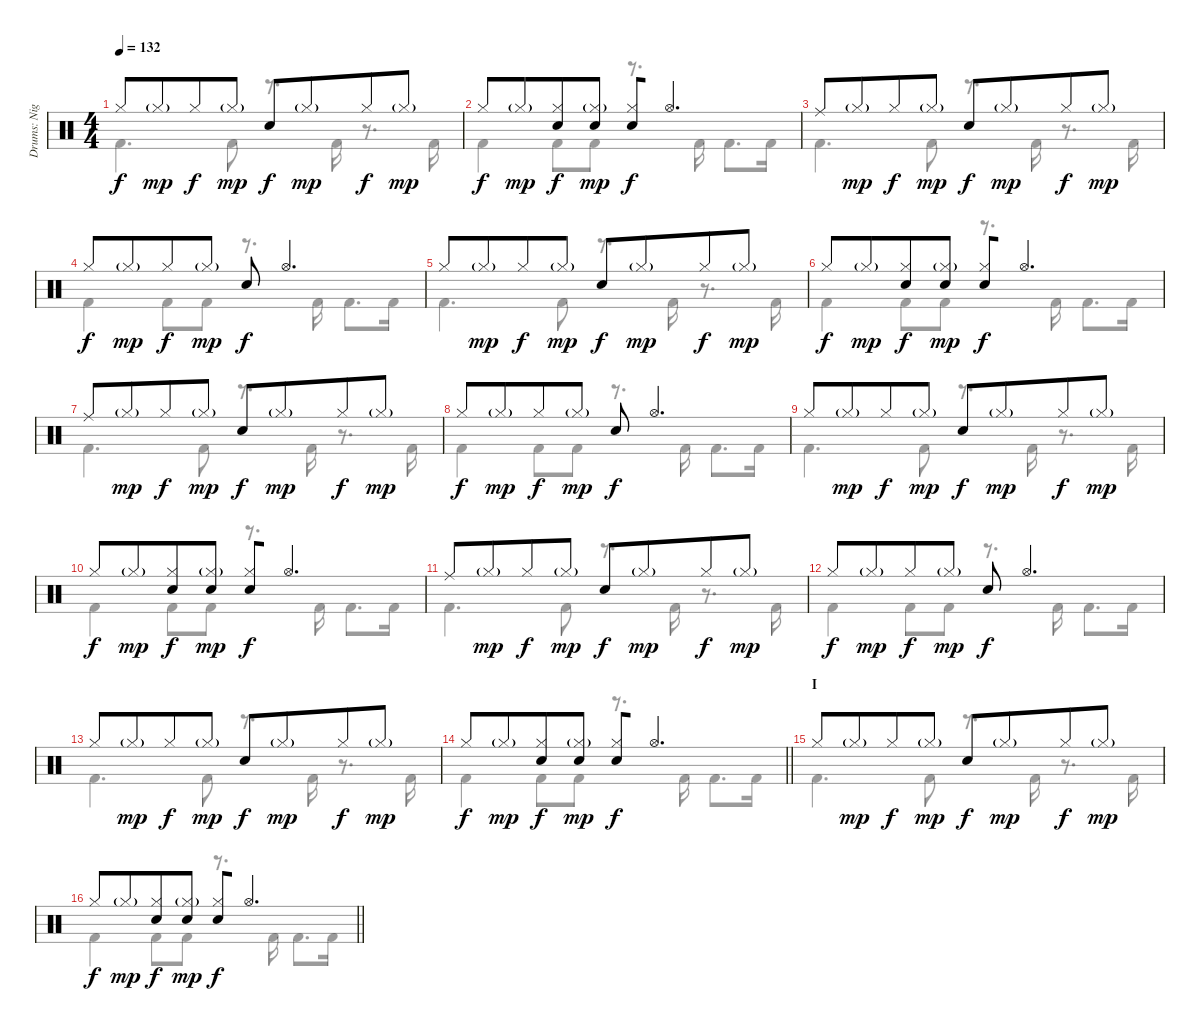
\track ("Drums: Nigel Ollson" "Drums: Nig") {instrument percussion}
\staff {score}
\articulation defaults
\voice
\ts (4 4)
\tempo 132
\clef neutral
\ks c "Hi-Hat (closed)".8{dy f} "Hi-Hat (closed)"{g}.8{dy mp beam merge} "Hi-Hat (closed)".8{dy f} "Hi-Hat (closed)"{g}.8{dy mp} "Electric Snare (hit)".8{dy f} "Hi-Hat (closed)"{g}.8{dy mp beam merge} "Hi-Hat (closed)".8{dy f} "Hi-Hat (closed)"{g}.8{dy mp}
|
"Hi-Hat (closed)".8{dy f} "Hi-Hat (closed)"{g}.8{dy mp beam merge} ("Hi-Hat (closed)" "Electric Snare (hit)").8{dy f} ("Hi-Hat (closed)"{g} "Electric Snare (hit)").8{dy mp} ("Hi-Hat (closed)" "Electric Snare (hit)").8{dy f beam merge} "Hi-Hat (open)".4{d} |
"Ride (middle)".8 "Hi-Hat (closed)"{g}.8{dy mp beam merge} "Hi-Hat (closed)".8{dy f} "Hi-Hat (closed)"{g}.8{dy mp} "Electric Snare (hit)".8{dy f} "Hi-Hat (closed)"{g}.8{dy mp beam merge} "Hi-Hat (closed)".8{dy f} "Hi-Hat (closed)"{g}.8{dy mp} |
"Hi-Hat (closed)".8{dy f} "Hi-Hat (closed)"{g}.8{dy mp beam merge} "Hi-Hat (closed)".8{dy f} "Hi-Hat (closed)"{g}.8{dy mp} "Electric Snare (hit)".8{dy f} "Hi-Hat (open)".4{d} |
"Hi-Hat (closed)".8 "Hi-Hat (closed)"{g}.8{dy mp beam merge} "Hi-Hat (closed)".8{dy f} "Hi-Hat (closed)"{g}.8{dy mp} "Electric Snare (hit)".8{dy f} "Hi-Hat (closed)"{g}.8{dy mp beam merge} "Hi-Hat (closed)".8{dy f} "Hi-Hat (closed)"{g}.8{dy mp} |
"Hi-Hat (closed)".8{dy f} "Hi-Hat (closed)"{g}.8{dy mp beam merge} ("Hi-Hat (closed)" "Electric Snare (hit)").8{dy f} ("Hi-Hat (closed)"{g} "Electric Snare (hit)").8{dy mp} ("Hi-Hat (closed)" "Electric Snare (hit)").8{dy f beam merge} "Hi-Hat (open)".4{d} |
"Ride (middle)".8 "Hi-Hat (closed)"{g}.8{dy mp beam merge} "Hi-Hat (closed)".8{dy f} "Hi-Hat (closed)"{g}.8{dy mp} "Electric Snare (hit)".8{dy f} "Hi-Hat (closed)"{g}.8{dy mp beam merge} "Hi-Hat (closed)".8{dy f} "Hi-Hat (closed)"{g}.8{dy mp} |
"Hi-Hat (closed)".8{dy f} "Hi-Hat (closed)"{g}.8{dy mp beam merge} "Hi-Hat (closed)".8{dy f} "Hi-Hat (closed)"{g}.8{dy mp} "Electric Snare (hit)".8{dy f} "Hi-Hat (open)".4{d} |
"Hi-Hat (closed)".8 "Hi-Hat (closed)"{g}.8{dy mp beam merge} "Hi-Hat (closed)".8{dy f} "Hi-Hat (closed)"{g}.8{dy mp} "Electric Snare (hit)".8{dy f} "Hi-Hat (closed)"{g}.8{dy mp beam merge} "Hi-Hat (closed)".8{dy f} "Hi-Hat (closed)"{g}.8{dy mp} |
"Hi-Hat (closed)".8{dy f} "Hi-Hat (closed)"{g}.8{dy mp beam merge} ("Hi-Hat (closed)" "Electric Snare (hit)").8{dy f} ("Hi-Hat (closed)"{g} "Electric Snare (hit)").8{dy mp} ("Hi-Hat (closed)" "Electric Snare (hit)").8{dy f beam merge} "Hi-Hat (open)".4{d} |
"Ride (middle)".8 "Hi-Hat (closed)"{g}.8{dy mp beam merge} "Hi-Hat (closed)".8{dy f} "Hi-Hat (closed)"{g}.8{dy mp} "Electric Snare (hit)".8{dy f} "Hi-Hat (closed)"{g}.8{dy mp beam merge} "Hi-Hat (closed)".8{dy f} "Hi-Hat (closed)"{g}.8{dy mp} |
"Hi-Hat (closed)".8{dy f} "Hi-Hat (closed)"{g}.8{dy mp beam merge} "Hi-Hat (closed)".8{dy f} "Hi-Hat (closed)"{g}.8{dy mp} "Electric Snare (hit)".8{dy f} "Hi-Hat (open)".4{d} |
"Hi-Hat (closed)".8 "Hi-Hat (closed)"{g}.8{dy mp beam merge} "Hi-Hat (closed)".8{dy f} "Hi-Hat (closed)"{g}.8{dy mp} "Electric Snare (hit)".8{dy f} "Hi-Hat (closed)"{g}.8{dy mp beam merge} "Hi-Hat (closed)".8{dy f} "Hi-Hat (closed)"{g}.8{dy mp} |
\barLineRight lightlight "Hi-Hat (closed)".8{dy f} "Hi-Hat (closed)"{g}.8{dy mp beam merge}
("Hi-Hat (closed)" "Electric Snare (hit)").8{dy f} ("Hi-Hat (closed)"{g} "Electric Snare (hit)").8{dy mp} ("Hi-Hat (closed)" "Electric Snare (hit)").8{dy f beam merge} "Hi-Hat (open)".4{d} |
\section ("" "I")
"Hi-Hat (closed)".8 "Hi-Hat (closed)"{g}.8{dy mp beam merge} "Hi-Hat (closed)".8{dy f} "Hi-Hat (closed)"{g}.8{dy mp} "Electric Snare (hit)".8{dy f} "Hi-Hat (closed)"{g}.8{dy mp beam merge} "Hi-Hat (closed)".8{dy f} "Hi-Hat (closed)"{g}.8{dy mp} |
\barLineRight lightlight "Hi-Hat (closed)".8{dy f} "Hi-Hat (closed)"{g}.8{dy mp beam merge}
("Hi-Hat (closed)" "Electric Snare (hit)").8{dy f} ("Hi-Hat (closed)"{g} "Electric Snare (hit)").8{dy mp} ("Hi-Hat (closed)" "Electric Snare (hit)").8{dy f beam merge} "Hi-Hat (open)".4{d}
\voice
\clef neutral
\ottava regular
\simile none
\ks c "Kick (hit) 2".4{d dy f} "Kick (hit) 2".8
r.8{d} "Kick (hit) 2".16 r.8{d} "Kick (hit) 2".16 |
"Kick (hit) 2".4 "Kick (hit) 2".8 "Kick (hit) 2".8 r.8{d} "Kick (hit) 2".16 "Kick (hit) 2".8{d} "Kick (hit) 2".16 |
"Kick (hit) 2".4{d} "Kick (hit) 2".8 r.8{d} "Kick (hit) 2".16 r.8{d} "Kick (hit) 2".16 |
"Kick (hit) 2".4 "Kick (hit) 2".8 "Kick (hit) 2".8 r.8{d} "Kick (hit) 2".16 "Kick (hit) 2".8{d} "Kick (hit) 2".16 |
"Kick (hit) 2".4{d} "Kick (hit) 2".8 r.8{d} "Kick (hit) 2".16 r.8{d} "Kick (hit) 2".16 |
"Kick (hit) 2".4 "Kick (hit) 2".8 "Kick (hit) 2".8 r.8{d} "Kick (hit) 2".16 "Kick (hit) 2".8{d} "Kick (hit) 2".16 |
"Kick (hit) 2".4{d} "Kick (hit) 2".8 r.8{d} "Kick (hit) 2".16 r.8{d} "Kick (hit) 2".16 |
"Kick (hit) 2".4 "Kick (hit) 2".8 "Kick (hit) 2".8 r.8{d} "Kick (hit) 2".16 "Kick (hit) 2".8{d} "Kick (hit) 2".16 |
"Kick (hit) 2".4{d} "Kick (hit) 2".8 r.8{d} "Kick (hit) 2".16 r.8{d} "Kick (hit) 2".16 |
"Kick (hit) 2".4 "Kick (hit) 2".8 "Kick (hit) 2".8 r.8{d} "Kick (hit) 2".16 "Kick (hit) 2".8{d} "Kick (hit) 2".16 |
"Kick (hit) 2".4{d} "Kick (hit) 2".8 r.8{d} "Kick (hit) 2".16 r.8{d} "Kick (hit) 2".16 |
"Kick (hit) 2".4 "Kick (hit) 2".8 "Kick (hit) 2".8 r.8{d} "Kick (hit) 2".16 "Kick (hit) 2".8{d} "Kick (hit) 2".16 |
"Kick (hit) 2".4{d} "Kick (hit) 2".8 r.8{d} "Kick (hit) 2".16 r.8{d} "Kick (hit) 2".16 |
\barLineRight lightlight "Kick (hit) 2".4 "Kick (hit) 2".8 "Kick (hit) 2".8
r.8{d} "Kick (hit) 2".16 "Kick (hit) 2".8{d} "Kick (hit) 2".16 |
"Kick (hit) 2".4{d} "Kick (hit) 2".8 r.8{d} "Kick (hit) 2".16 r.8{d} "Kick (hit) 2".16 |
\barLineRight lightlight "Kick (hit) 2".4 "Kick (hit) 2".8 "Kick (hit) 2".8
r.8{d} "Kick (hit) 2".16 "Kick (hit) 2".8{d} "Kick (hit) 2".16
